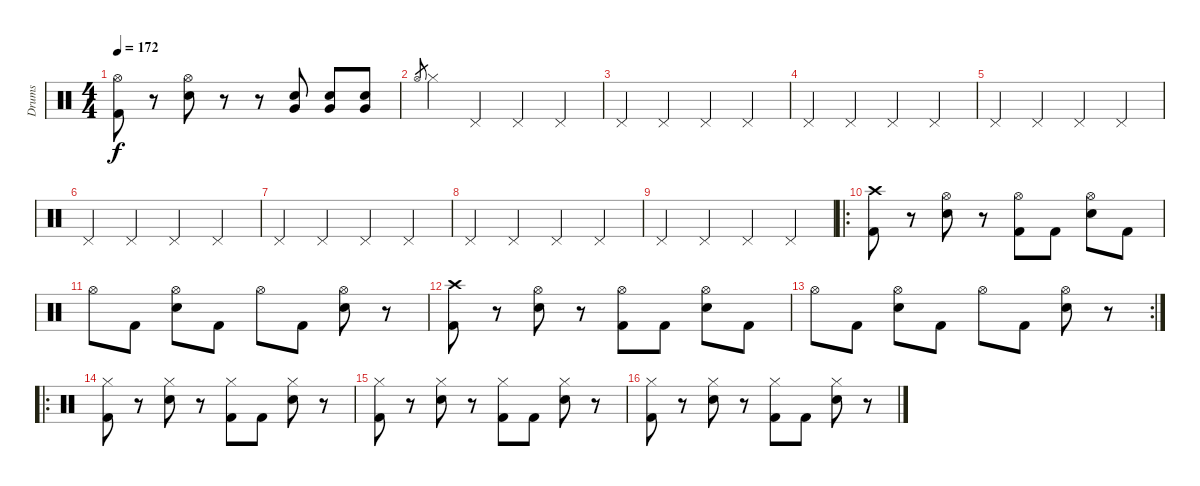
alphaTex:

\track ("Drums" "Drums") {instrument percussion}
\staff {score}
\articulation defaults
\ts (4 4)
\tempo 172
\clef neutral
\ks c
("Hi-Hat (open)" "Kick (hit) 2").8{dy f} r.8 ("Hi-Hat (open)" "Snare (hit) 2").8 r.8 r.8 ("Very Low Tom (hit)" "Snare (hit) 2").8 ("Very Low Tom (hit)" "Snare (hit) 2").8 ("Very Low Tom (hit)" "Snare (hit) 2").8 |
"Hi-Hat (open)".8{gr} "Hi-Hat (closed)".4 "Pedal Hi-Hat (hit)".4{volume 10} "Pedal Hi-Hat (hit)".4 "Pedal Hi-Hat (hit)".4 |
"Pedal Hi-Hat (hit)".4 "Pedal Hi-Hat (hit)".4 "Pedal Hi-Hat (hit)".4 "Pedal Hi-Hat (hit)".4 |
"Pedal Hi-Hat (hit)".4 "Pedal Hi-Hat (hit)".4 "Pedal Hi-Hat (hit)".4 "Pedal Hi-Hat (hit)".4 |
"Pedal Hi-Hat (hit)".4 "Pedal Hi-Hat (hit)".4 "Pedal Hi-Hat (hit)".4 "Pedal Hi-Hat (hit)".4 |
"Pedal Hi-Hat (hit)".4 "Pedal Hi-Hat (hit)".4 "Pedal Hi-Hat (hit)".4 "Pedal Hi-Hat (hit)".4 |
"Pedal Hi-Hat (hit)".4 "Pedal Hi-Hat (hit)".4 "Pedal Hi-Hat (hit)".4 "Pedal Hi-Hat (hit)".4 |
"Pedal Hi-Hat (hit)".4 "Pedal Hi-Hat (hit)".4 "Pedal Hi-Hat (hit)".4 "Pedal Hi-Hat (hit)".4 |
"Pedal Hi-Hat (hit)".4 "Pedal Hi-Hat (hit)".4 "Pedal Hi-Hat (hit)".4 "Pedal Hi-Hat (hit)".4 |
\ro
("Crash high (hit)" "Kick (hit) 2").8 r.8 ("Hi-Hat (open)" "Snare (hit) 2").8 r.8 ("Hi-Hat (open)" "Kick (hit) 2").8 "Kick (hit) 2".8 ("Hi-Hat (open)" "Snare (hit) 2").8 "Kick (hit) 2".8 |
"Hi-Hat (open)".8 "Kick (hit) 2".8 ("Hi-Hat (open)" "Snare (hit) 2").8 "Kick (hit) 2".8 "Hi-Hat (open)".8 "Kick (hit) 2".8 ("Hi-Hat (open)" "Snare (hit) 2").8 r.8 |
("Crash high (hit)" "Kick (hit) 2").8 r.8 ("Hi-Hat (open)" "Snare (hit) 2").8 r.8 ("Hi-Hat (open)" "Kick (hit) 2").8 "Kick (hit) 2".8 ("Hi-Hat (open)" "Snare (hit) 2").8 "Kick (hit) 2".8 |
\rc 2 "Hi-Hat (open)".8 "Kick (hit) 2".8
("Hi-Hat (open)" "Snare (hit) 2").8 "Kick (hit) 2".8 "Hi-Hat (open)".8 "Kick (hit) 2".8 ("Hi-Hat (open)" "Snare (hit) 2").8 r.8 |
\ro
("Hi-Hat (closed)" "Kick (hit) 2").8 r.8 ("Hi-Hat (closed)" "Snare (hit) 2").8 r.8 ("Hi-Hat (closed)" "Kick (hit) 2").8 "Kick (hit) 2".8 ("Hi-Hat (closed)" "Snare (hit) 2").8 r.8 |
("Hi-Hat (closed)" "Kick (hit) 2").8 r.8 ("Hi-Hat (closed)" "Snare (hit) 2").8 r.8 ("Hi-Hat (closed)" "Kick (hit) 2").8 "Kick (hit) 2".8 ("Hi-Hat (closed)" "Snare (hit) 2").8 r.8 |
("Hi-Hat (closed)" "Kick (hit) 2").8 r.8 ("Hi-Hat (closed)" "Snare (hit) 2").8 r.8 ("Hi-Hat (closed)" "Kick (hit) 2").8 "Kick (hit) 2".8 ("Hi-Hat (closed)" "Snare (hit) 2").8 r.8
